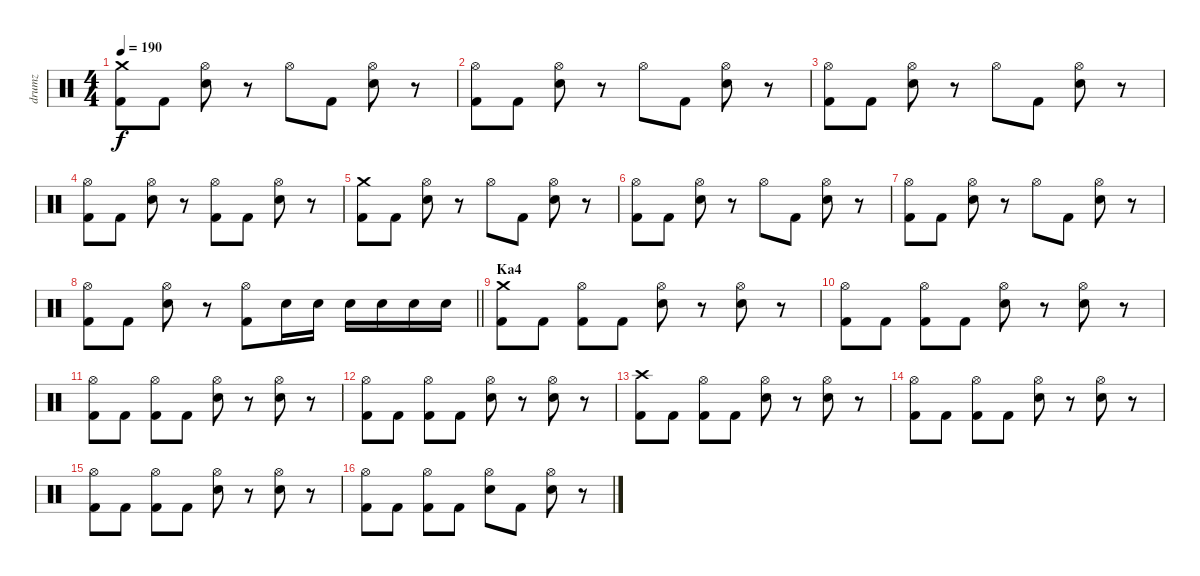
\track ("drumz" "drumz") {instrument percussion}
\staff {score}
\articulation defaults
\ts (4 4)
\tempo 190
\clef neutral
\ks c
("Crash medium (hit)" "Kick (hit) 2").8{dy f} "Kick (hit) 2".8 ("Hi-Hat (open)" "Electric Snare (hit)").8 r.8 "Hi-Hat (open)".8 "Kick (hit) 2".8 ("Hi-Hat (open)" "Electric Snare (hit)").8 r.8 |
("Hi-Hat (open)" "Kick (hit) 2").8 "Kick (hit) 2".8 ("Hi-Hat (open)" "Electric Snare (hit)").8 r.8 "Hi-Hat (open)".8 "Kick (hit) 2".8 ("Hi-Hat (open)" "Electric Snare (hit)").8 r.8 |
("Hi-Hat (open)" "Kick (hit) 2").8 "Kick (hit) 2".8 ("Hi-Hat (open)" "Electric Snare (hit)").8 r.8 "Hi-Hat (open)".8 "Kick (hit) 2".8 ("Hi-Hat (open)" "Electric Snare (hit)").8 r.8 |
("Hi-Hat (open)" "Kick (hit) 2").8 "Kick (hit) 2".8 ("Hi-Hat (open)" "Electric Snare (hit)").8 r.8 ("Hi-Hat (open)" "Kick (hit) 2").8 "Kick (hit) 2".8 ("Hi-Hat (open)" "Electric Snare (hit)").8 r.8 |
("Crash medium (hit)" "Kick (hit) 2").8 "Kick (hit) 2".8 ("Hi-Hat (open)" "Electric Snare (hit)").8 r.8 "Hi-Hat (open)".8 "Kick (hit) 2".8 ("Hi-Hat (open)" "Electric Snare (hit)").8 r.8 |
("Hi-Hat (open)" "Kick (hit) 2").8 "Kick (hit) 2".8 ("Hi-Hat (open)" "Electric Snare (hit)").8 r.8 "Hi-Hat (open)".8 "Kick (hit) 2".8 ("Hi-Hat (open)" "Electric Snare (hit)").8 r.8 |
("Hi-Hat (open)" "Kick (hit) 2").8 "Kick (hit) 2".8 ("Hi-Hat (open)" "Electric Snare (hit)").8 r.8 "Hi-Hat (open)".8 "Kick (hit) 2".8 ("Hi-Hat (open)" "Electric Snare (hit)").8 r.8 |
\barLineRight lightlight
("Hi-Hat (open)" "Kick (hit) 2").8 "Kick (hit) 2".8 ("Hi-Hat (open)" "Electric Snare (hit)").8 r.8 ("Hi-Hat (open)" "Kick (hit) 2").8 "Electric Snare (hit)".16 "Electric Snare (hit)".16 "Electric Snare (hit)".16 "Electric Snare (hit)".16 "Electric Snare (hit)".16 "Electric Snare (hit)".16 |
\section ("" "Ka4")
("Crash medium (hit)" "Kick (hit) 2").8 "Kick (hit) 2".8 ("Hi-Hat (open)" "Kick (hit) 2").8 "Kick (hit) 2".8 ("Hi-Hat (open)" "Electric Snare (hit)").8 r.8 ("Hi-Hat (open)" "Electric Snare (hit)").8 r.8 |
("Hi-Hat (open)" "Kick (hit) 2").8 "Kick (hit) 2".8 ("Hi-Hat (open)" "Kick (hit) 2").8 "Kick (hit) 2".8 ("Hi-Hat (open)" "Electric Snare (hit)").8 r.8 ("Hi-Hat (open)" "Electric Snare (hit)").8 r.8 |
("Hi-Hat (open)" "Kick (hit) 2").8 "Kick (hit) 2".8 ("Hi-Hat (open)" "Kick (hit) 2").8 "Kick (hit) 2".8 ("Hi-Hat (open)" "Electric Snare (hit)").8 r.8 ("Hi-Hat (open)" "Electric Snare (hit)").8 r.8 |
("Hi-Hat (open)" "Kick (hit) 2").8 "Kick (hit) 2".8 ("Hi-Hat (open)" "Kick (hit) 2").8 "Kick (hit) 2".8 ("Hi-Hat (open)" "Electric Snare (hit)").8 r.8 ("Hi-Hat (open)" "Electric Snare (hit)").8 r.8 |
("Crash high (hit)" "Kick (hit) 2").8 "Kick (hit) 2".8 ("Hi-Hat (open)" "Kick (hit) 2").8 "Kick (hit) 2".8 ("Hi-Hat (open)" "Electric Snare (hit)").8 r.8 ("Hi-Hat (open)" "Electric Snare (hit)").8 r.8 |
("Hi-Hat (open)" "Kick (hit) 2").8 "Kick (hit) 2".8 ("Hi-Hat (open)" "Kick (hit) 2").8 "Kick (hit) 2".8 ("Hi-Hat (open)" "Electric Snare (hit)").8 r.8 ("Hi-Hat (open)" "Electric Snare (hit)").8 r.8 |
("Hi-Hat (open)" "Kick (hit) 2").8 "Kick (hit) 2".8 ("Hi-Hat (open)" "Kick (hit) 2").8 "Kick (hit) 2".8 ("Hi-Hat (open)" "Electric Snare (hit)").8 r.8 ("Hi-Hat (open)" "Electric Snare (hit)").8 r.8 |
("Hi-Hat (open)" "Kick (hit) 2").8 "Kick (hit) 2".8 ("Hi-Hat (open)" "Kick (hit) 2").8 "Kick (hit) 2".8 ("Hi-Hat (open)" "Electric Snare (hit)").8 "Kick (hit) 2".8 ("Hi-Hat (open)" "Electric Snare (hit)").8 r.8
